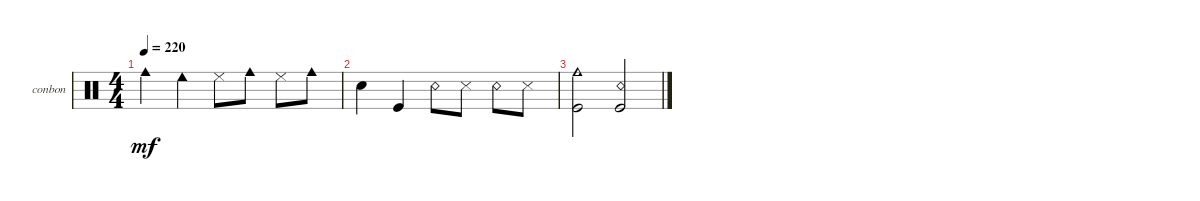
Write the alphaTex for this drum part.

\defaultSystemsLayout 4
\bracketExtendMode groupsimilarinstruments
\firstSystemTrackNameOrientation horizontal
\otherSystemsTrackNameOrientation horizontal
\track ("Bongos N Congas" "conbon") {instrument percussion}
\staff {score}
\articulation defaults
\ts (4 4)
\tempo 220
\clef neutral
\ks c "Cowbell medium (hit)".4{dy mf} "Cowbell low (hit)".4 "Cowbell low (tip)".8 "Cowbell medium (hit)".8 "Cowbell low (tip)".8 "Cowbell medium (hit)".8
|
"Snare (hit) 2".4 "Kick (hit)".4 "Snare (rim shot)".8 "Snare (side stick) 3".8 "Snare (rim shot)".8 "Snare (side stick) 3".8 |
("Kick (hit)" "Cowbell medium (hit)").2 ("Kick (hit)" "Snare (rim shot)").2
